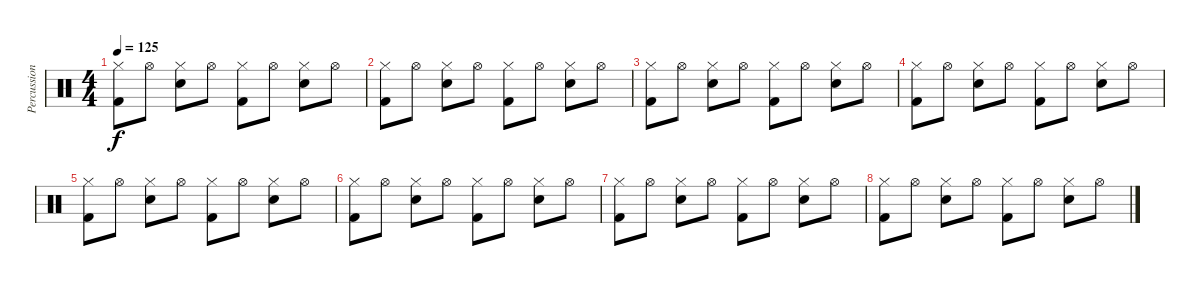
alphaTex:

\track ("Percussion" "Percussion") {instrument percussion}
\staff {score}
\articulation defaults
\ts (4 4)
\tempo 125
\clef neutral
\ks c
("Hi-Hat (closed)" "Kick (hit) 2").8{dy f} "Hi-Hat (open)".8 ("Hi-Hat (closed)" "Snare (hit) 2").8 "Hi-Hat (open)".8 ("Hi-Hat (closed)" "Kick (hit) 2").8 "Hi-Hat (open)".8 ("Hi-Hat (closed)" "Snare (hit) 2").8 "Hi-Hat (open)".8 |
("Hi-Hat (closed)" "Kick (hit) 2").8 "Hi-Hat (open)".8 ("Hi-Hat (closed)" "Snare (hit) 2").8 "Hi-Hat (open)".8 ("Hi-Hat (closed)" "Kick (hit) 2").8 "Hi-Hat (open)".8 ("Hi-Hat (closed)" "Snare (hit) 2").8 "Hi-Hat (open)".8 |
("Hi-Hat (closed)" "Kick (hit) 2").8 "Hi-Hat (open)".8 ("Hi-Hat (closed)" "Snare (hit) 2").8 "Hi-Hat (open)".8 ("Hi-Hat (closed)" "Kick (hit) 2").8 "Hi-Hat (open)".8 ("Hi-Hat (closed)" "Snare (hit) 2").8 "Hi-Hat (open)".8 |
("Hi-Hat (closed)" "Kick (hit) 2").8 "Hi-Hat (open)".8 ("Hi-Hat (closed)" "Snare (hit) 2").8 "Hi-Hat (open)".8 ("Hi-Hat (closed)" "Kick (hit) 2").8 "Hi-Hat (open)".8 ("Hi-Hat (closed)" "Snare (hit) 2").8 "Hi-Hat (open)".8 |
("Hi-Hat (closed)" "Kick (hit) 2").8 "Hi-Hat (open)".8 ("Hi-Hat (closed)" "Snare (hit) 2").8 "Hi-Hat (open)".8 ("Hi-Hat (closed)" "Kick (hit) 2").8 "Hi-Hat (open)".8 ("Hi-Hat (closed)" "Snare (hit) 2").8 "Hi-Hat (open)".8 |
("Hi-Hat (closed)" "Kick (hit) 2").8 "Hi-Hat (open)".8 ("Hi-Hat (closed)" "Snare (hit) 2").8 "Hi-Hat (open)".8 ("Hi-Hat (closed)" "Kick (hit) 2").8 "Hi-Hat (open)".8 ("Hi-Hat (closed)" "Snare (hit) 2").8 "Hi-Hat (open)".8 |
("Hi-Hat (closed)" "Kick (hit) 2").8 "Hi-Hat (open)".8 ("Hi-Hat (closed)" "Snare (hit) 2").8 "Hi-Hat (open)".8 ("Hi-Hat (closed)" "Kick (hit) 2").8 "Hi-Hat (open)".8 ("Hi-Hat (closed)" "Snare (hit) 2").8 "Hi-Hat (open)".8 |
("Hi-Hat (closed)" "Kick (hit) 2").8 "Hi-Hat (open)".8 ("Hi-Hat (closed)" "Snare (hit) 2").8 "Hi-Hat (open)".8 ("Hi-Hat (closed)" "Kick (hit) 2").8 "Hi-Hat (open)".8 ("Hi-Hat (closed)" "Snare (hit) 2").8 "Hi-Hat (open)".8
